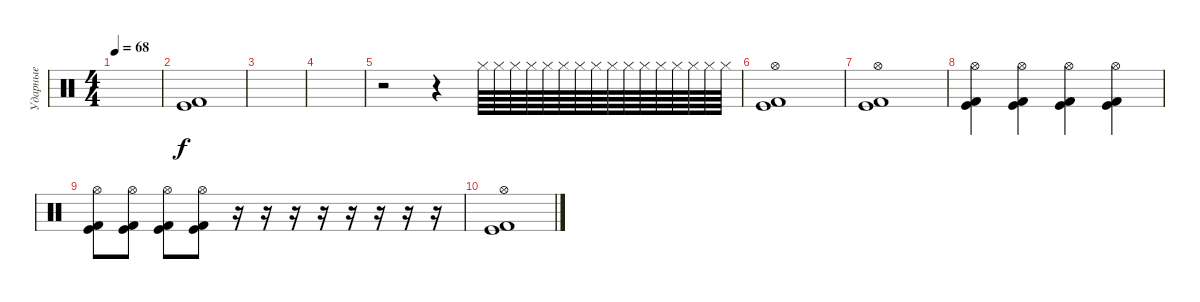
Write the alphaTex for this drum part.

\track ("Ударные" "Ударные") {instrument percussion}
\staff {score}
\articulation defaults
\ts (4 4)
\tempo 68
\clef neutral
\ks c
|
("Kick (hit)" "Kick (hit) 2").1 |
|
|
r.2 r.4 "Hi-Hat (closed)".64 "Hi-Hat (closed)".64 "Hi-Hat (closed)".64 "Hi-Hat (closed)".64 "Hi-Hat (closed)".64 "Hi-Hat (closed)".64 "Hi-Hat (closed)".64 "Hi-Hat (closed)".64 "Hi-Hat (closed)".64 "Hi-Hat (closed)".64 "Hi-Hat (closed)".64 "Hi-Hat (closed)".64 "Hi-Hat (closed)".64 "Hi-Hat (closed)".64 "Hi-Hat (closed)".64 "Hi-Hat (closed)".64 |
("Kick (hit)" "Kick (hit) 2" "Hi-Hat (open)").1 |
("Kick (hit)" "Kick (hit) 2" "Hi-Hat (open)").1 |
("Kick (hit)" "Kick (hit) 2" "Hi-Hat (open)").4 ("Kick (hit)" "Kick (hit) 2" "Hi-Hat (open)").4 ("Kick (hit)" "Kick (hit) 2" "Hi-Hat (open)").4 ("Kick (hit)" "Kick (hit) 2" "Hi-Hat (open)").4 |
("Kick (hit)" "Kick (hit) 2" "Hi-Hat (open)").8 ("Kick (hit)" "Kick (hit) 2" "Hi-Hat (open)").8 ("Kick (hit)" "Kick (hit) 2" "Hi-Hat (open)").8 ("Kick (hit)" "Kick (hit) 2" "Hi-Hat (open)").8 r.16 r.16 r.16 r.16 r.16 r.16 r.16 r.16 |
("Kick (hit)" "Kick (hit) 2" "Hi-Hat (open)").1
